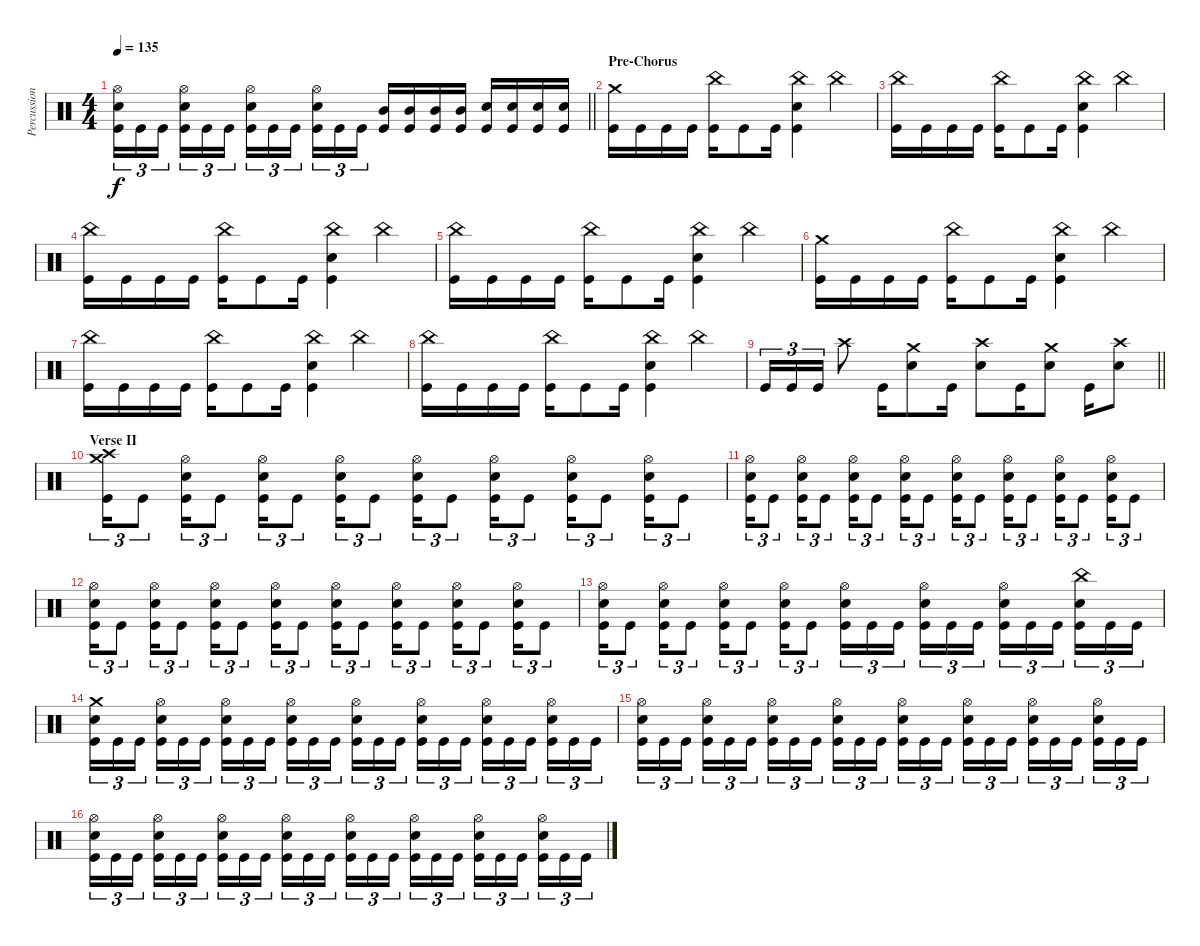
\track ("Percussion" "Percussion") {instrument percussion}
\staff {score}
\articulation defaults
\ts (4 4)
\tempo 135
\clef neutral
\barLineRight lightlight
\ks c
("Hi-Hat (open)" "Electric Snare (hit)" "Kick (hit)").16{tu (3 2) dy f} "Kick (hit)".16{tu (3 2)} "Kick (hit)".16{tu (3 2) beam splitsecondary} ("Hi-Hat (open)" "Electric Snare (hit)" "Kick (hit)").16{tu (3 2)} "Kick (hit)".16{tu (3 2)} "Kick (hit)".16{tu (3 2)} ("Hi-Hat (open)" "Electric Snare (hit)" "Kick (hit)").16{tu (3 2)} "Kick (hit)".16{tu (3 2)} "Kick (hit)".16{tu (3 2) beam splitsecondary} ("Hi-Hat (open)" "Electric Snare (hit)" "Kick (hit)").16{tu (3 2)} "Kick (hit)".16{tu (3 2)} "Kick (hit)".16{tu (3 2)} ("Mid Tom (hit)" "Kick (hit)").16 ("Mid Tom (hit)" "Kick (hit)").16 ("Mid Tom (hit)" "Kick (hit)").16 ("Mid Tom (hit)" "Kick (hit)").16 ("Electric Snare (hit)" "Kick (hit)").16 ("Electric Snare (hit)" "Kick (hit)").16 ("Electric Snare (hit)" "Kick (hit)").16 ("Electric Snare (hit)" "Kick (hit)").16 |
\section ("" "Pre-Chorus")
("Crash medium (hit)" "Kick (hit)").16 "Kick (hit)".16 "Kick (hit)".16 "Kick (hit)".16 ("China (hit)" "Kick (hit)").16 "Kick (hit)".8 "Kick (hit)".16 ("China (hit)" "Electric Snare (hit)" "Kick (hit)").4 "China (hit)".4 |
("China (hit)" "Kick (hit)").16 "Kick (hit)".16 "Kick (hit)".16 "Kick (hit)".16 ("China (hit)" "Kick (hit)").16 "Kick (hit)".8 "Kick (hit)".16 ("China (hit)" "Electric Snare (hit)" "Kick (hit)").4 "China (hit)".4 |
("China (hit)" "Kick (hit)").16 "Kick (hit)".16 "Kick (hit)".16 "Kick (hit)".16 ("China (hit)" "Kick (hit)").16 "Kick (hit)".8 "Kick (hit)".16 ("China (hit)" "Electric Snare (hit)" "Kick (hit)").4 "China (hit)".4 |
("China (hit)" "Kick (hit)").16 "Kick (hit)".16 "Kick (hit)".16 "Kick (hit)".16 ("China (hit)" "Kick (hit)").16 "Kick (hit)".8 "Kick (hit)".16 ("China (hit)" "Electric Snare (hit)" "Kick (hit)").4 "China (hit)".4 |
("Crash medium (hit)" "Kick (hit)").16 "Kick (hit)".16 "Kick (hit)".16 "Kick (hit)".16 ("China (hit)" "Kick (hit)").16 "Kick (hit)".8 "Kick (hit)".16 ("China (hit)" "Electric Snare (hit)" "Kick (hit)").4 "China (hit)".4 |
("China (hit)" "Kick (hit)").16 "Kick (hit)".16 "Kick (hit)".16 "Kick (hit)".16 ("China (hit)" "Kick (hit)").16 "Kick (hit)".8 "Kick (hit)".16 ("China (hit)" "Electric Snare (hit)" "Kick (hit)").4 "China (hit)".4 |
("China (hit)" "Kick (hit)").16 "Kick (hit)".16 "Kick (hit)".16 "Kick (hit)".16 ("China (hit)" "Kick (hit)").16 "Kick (hit)".8 "Kick (hit)".16 ("China (hit)" "Electric Snare (hit)" "Kick (hit)").4 "China (hit)".4 |
\barLineRight lightlight "Kick (hit)".16{tu (3 2)} "Kick (hit)".16{tu (3 2)} "Kick (hit)".16{tu (3 2)} "Crash high (hit)".8 "Kick (hit)".16
("Crash medium (hit)" "Electric Snare (hit)").8 "Kick (hit)".16 ("Crash high (hit)" "Electric Snare (hit)").8 "Kick (hit)".16 ("Crash medium (hit)" "Electric Snare (hit)").8 "Kick (hit)".16 ("Crash high (hit)" "Electric Snare (hit)").8 |
\section ("" "Verse II")
("Crash high (hit)" "Crash medium (hit)" "Kick (hit)").16{tu (3 2)} "Kick (hit)".8{tu (3 2)} ("Hi-Hat (open)" "Electric Snare (hit)" "Kick (hit)").16{tu (3 2)} "Kick (hit)".8{tu (3 2)} ("Hi-Hat (open)" "Electric Snare (hit)" "Kick (hit)").16{tu (3 2)} "Kick (hit)".8{tu (3 2)} ("Hi-Hat (open)" "Electric Snare (hit)" "Kick (hit)").16{tu (3 2)} "Kick (hit)".8{tu (3 2)} ("Hi-Hat (open)" "Electric Snare (hit)" "Kick (hit)").16{tu (3 2)} "Kick (hit)".8{tu (3 2)} ("Hi-Hat (open)" "Electric Snare (hit)" "Kick (hit)").16{tu (3 2)} "Kick (hit)".8{tu (3 2)} ("Hi-Hat (open)" "Electric Snare (hit)" "Kick (hit)").16{tu (3 2)} "Kick (hit)".8{tu (3 2)} ("Hi-Hat (open)" "Electric Snare (hit)" "Kick (hit)").16{tu (3 2)} "Kick (hit)".8{tu (3 2)} |
("Hi-Hat (open)" "Electric Snare (hit)" "Kick (hit)").16{tu (3 2)} "Kick (hit)".8{tu (3 2)} ("Hi-Hat (open)" "Electric Snare (hit)" "Kick (hit)").16{tu (3 2)} "Kick (hit)".8{tu (3 2)} ("Hi-Hat (open)" "Electric Snare (hit)" "Kick (hit)").16{tu (3 2)} "Kick (hit)".8{tu (3 2)} ("Hi-Hat (open)" "Electric Snare (hit)" "Kick (hit)").16{tu (3 2)} "Kick (hit)".8{tu (3 2)} ("Hi-Hat (open)" "Electric Snare (hit)" "Kick (hit)").16{tu (3 2)} "Kick (hit)".8{tu (3 2)} ("Hi-Hat (open)" "Electric Snare (hit)" "Kick (hit)").16{tu (3 2)} "Kick (hit)".8{tu (3 2)} ("Hi-Hat (open)" "Electric Snare (hit)" "Kick (hit)").16{tu (3 2)} "Kick (hit)".8{tu (3 2)} ("Hi-Hat (open)" "Electric Snare (hit)" "Kick (hit)").16{tu (3 2)} "Kick (hit)".8{tu (3 2)} |
("Hi-Hat (open)" "Electric Snare (hit)" "Kick (hit)").16{tu (3 2)} "Kick (hit)".8{tu (3 2)} ("Hi-Hat (open)" "Electric Snare (hit)" "Kick (hit)").16{tu (3 2)} "Kick (hit)".8{tu (3 2)} ("Hi-Hat (open)" "Electric Snare (hit)" "Kick (hit)").16{tu (3 2)} "Kick (hit)".8{tu (3 2)} ("Hi-Hat (open)" "Electric Snare (hit)" "Kick (hit)").16{tu (3 2)} "Kick (hit)".8{tu (3 2)} ("Hi-Hat (open)" "Electric Snare (hit)" "Kick (hit)").16{tu (3 2)} "Kick (hit)".8{tu (3 2)} ("Hi-Hat (open)" "Electric Snare (hit)" "Kick (hit)").16{tu (3 2)} "Kick (hit)".8{tu (3 2)} ("Hi-Hat (open)" "Electric Snare (hit)" "Kick (hit)").16{tu (3 2)} "Kick (hit)".8{tu (3 2)} ("Hi-Hat (open)" "Electric Snare (hit)" "Kick (hit)").16{tu (3 2)} "Kick (hit)".8{tu (3 2)} |
("Hi-Hat (open)" "Electric Snare (hit)" "Kick (hit)").16{tu (3 2)} "Kick (hit)".8{tu (3 2)} ("Hi-Hat (open)" "Electric Snare (hit)" "Kick (hit)").16{tu (3 2)} "Kick (hit)".8{tu (3 2)} ("Hi-Hat (open)" "Electric Snare (hit)" "Kick (hit)").16{tu (3 2)} "Kick (hit)".8{tu (3 2)} ("Hi-Hat (open)" "Electric Snare (hit)" "Kick (hit)").16{tu (3 2)} "Kick (hit)".8{tu (3 2)} ("Hi-Hat (open)" "Electric Snare (hit)" "Kick (hit)").16{tu (3 2)} "Kick (hit)".16{tu (3 2)} "Kick (hit)".16{tu (3 2) beam splitsecondary} ("Hi-Hat (open)" "Electric Snare (hit)" "Kick (hit)").16{tu (3 2)} "Kick (hit)".16{tu (3 2)} "Kick (hit)".16{tu (3 2)} ("Hi-Hat (open)" "Electric Snare (hit)" "Kick (hit)").16{tu (3 2)} "Kick (hit)".16{tu (3 2)} "Kick (hit)".16{tu (3 2) beam splitsecondary} ("China (hit)" "Electric Snare (hit)" "Kick (hit)").16{tu (3 2)} "Kick (hit)".16{tu (3 2)} "Kick (hit)".16{tu (3 2)} |
("Crash medium (hit)" "Electric Snare (hit)" "Kick (hit)").16{tu (3 2)} "Kick (hit)".16{tu (3 2)} "Kick (hit)".16{tu (3 2) beam splitsecondary} ("Hi-Hat (open)" "Electric Snare (hit)" "Kick (hit)").16{tu (3 2)} "Kick (hit)".16{tu (3 2)} "Kick (hit)".16{tu (3 2)} ("Hi-Hat (open)" "Electric Snare (hit)" "Kick (hit)").16{tu (3 2)} "Kick (hit)".16{tu (3 2)} "Kick (hit)".16{tu (3 2) beam splitsecondary} ("Hi-Hat (open)" "Electric Snare (hit)" "Kick (hit)").16{tu (3 2)} "Kick (hit)".16{tu (3 2)} "Kick (hit)".16{tu (3 2)} ("Hi-Hat (open)" "Electric Snare (hit)" "Kick (hit)").16{tu (3 2)} "Kick (hit)".16{tu (3 2)} "Kick (hit)".16{tu (3 2) beam splitsecondary} ("Hi-Hat (open)" "Electric Snare (hit)" "Kick (hit)").16{tu (3 2)} "Kick (hit)".16{tu (3 2)} "Kick (hit)".16{tu (3 2)} ("Hi-Hat (open)" "Electric Snare (hit)" "Kick (hit)").16{tu (3 2)} "Kick (hit)".16{tu (3 2)} "Kick (hit)".16{tu (3 2) beam splitsecondary} ("Hi-Hat (open)" "Electric Snare (hit)" "Kick (hit)").16{tu (3 2)} "Kick (hit)".16{tu (3 2)} "Kick (hit)".16{tu (3 2)} |
("Hi-Hat (open)" "Electric Snare (hit)" "Kick (hit)").16{tu (3 2)} "Kick (hit)".16{tu (3 2)} "Kick (hit)".16{tu (3 2) beam splitsecondary} ("Hi-Hat (open)" "Electric Snare (hit)" "Kick (hit)").16{tu (3 2)} "Kick (hit)".16{tu (3 2)} "Kick (hit)".16{tu (3 2)} ("Hi-Hat (open)" "Electric Snare (hit)" "Kick (hit)").16{tu (3 2)} "Kick (hit)".16{tu (3 2)} "Kick (hit)".16{tu (3 2) beam splitsecondary} ("Hi-Hat (open)" "Electric Snare (hit)" "Kick (hit)").16{tu (3 2)} "Kick (hit)".16{tu (3 2)} "Kick (hit)".16{tu (3 2)} ("Hi-Hat (open)" "Electric Snare (hit)" "Kick (hit)").16{tu (3 2)} "Kick (hit)".16{tu (3 2)} "Kick (hit)".16{tu (3 2) beam splitsecondary} ("Hi-Hat (open)" "Electric Snare (hit)" "Kick (hit)").16{tu (3 2)} "Kick (hit)".16{tu (3 2)} "Kick (hit)".16{tu (3 2)} ("Hi-Hat (open)" "Electric Snare (hit)" "Kick (hit)").16{tu (3 2)} "Kick (hit)".16{tu (3 2)} "Kick (hit)".16{tu (3 2) beam splitsecondary} ("Hi-Hat (open)" "Electric Snare (hit)" "Kick (hit)").16{tu (3 2)} "Kick (hit)".16{tu (3 2)} "Kick (hit)".16{tu (3 2)} |
("Hi-Hat (open)" "Electric Snare (hit)" "Kick (hit)").16{tu (3 2)} "Kick (hit)".16{tu (3 2)} "Kick (hit)".16{tu (3 2) beam splitsecondary} ("Hi-Hat (open)" "Electric Snare (hit)" "Kick (hit)").16{tu (3 2)} "Kick (hit)".16{tu (3 2)} "Kick (hit)".16{tu (3 2)} ("Hi-Hat (open)" "Electric Snare (hit)" "Kick (hit)").16{tu (3 2)} "Kick (hit)".16{tu (3 2)} "Kick (hit)".16{tu (3 2) beam splitsecondary} ("Hi-Hat (open)" "Electric Snare (hit)" "Kick (hit)").16{tu (3 2)} "Kick (hit)".16{tu (3 2)} "Kick (hit)".16{tu (3 2)} ("Hi-Hat (open)" "Electric Snare (hit)" "Kick (hit)").16{tu (3 2)} "Kick (hit)".16{tu (3 2)} "Kick (hit)".16{tu (3 2) beam splitsecondary} ("Hi-Hat (open)" "Electric Snare (hit)" "Kick (hit)").16{tu (3 2)} "Kick (hit)".16{tu (3 2)} "Kick (hit)".16{tu (3 2)} ("Hi-Hat (open)" "Electric Snare (hit)" "Kick (hit)").16{tu (3 2)} "Kick (hit)".16{tu (3 2)} "Kick (hit)".16{tu (3 2) beam splitsecondary} ("Hi-Hat (open)" "Electric Snare (hit)" "Kick (hit)").16{tu (3 2)} "Kick (hit)".16{tu (3 2)} "Kick (hit)".16{tu (3 2)}
